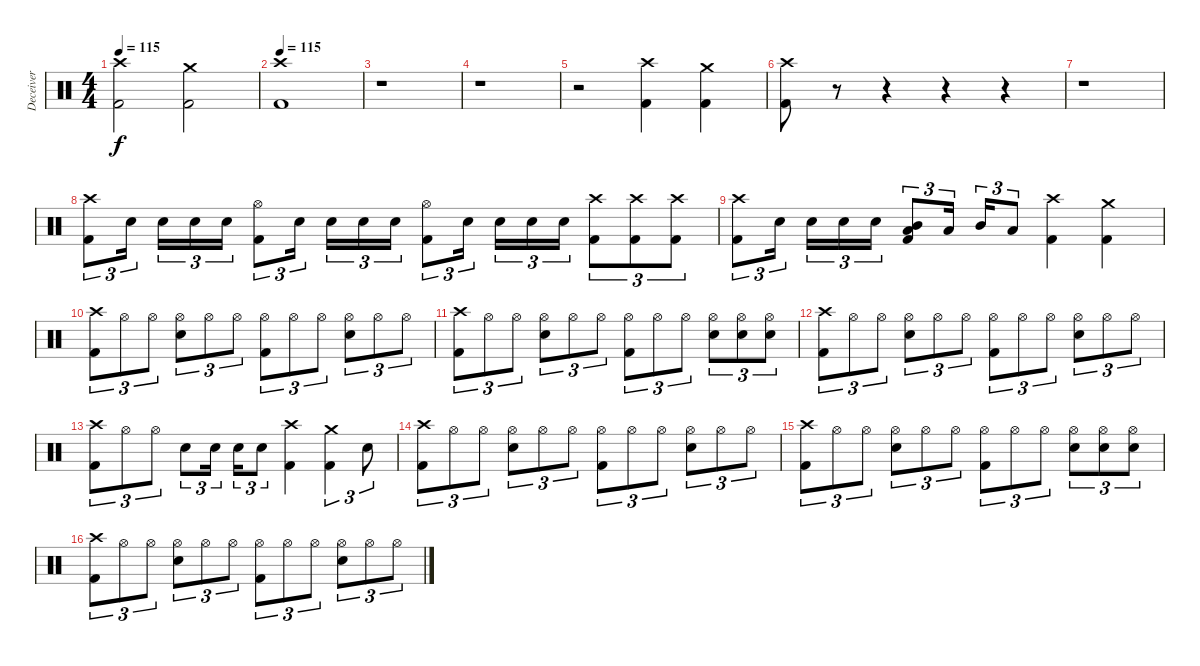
\track ("Deceiver" "Deceiver") {instrument percussion}
\staff {score}
\articulation defaults
\ts (4 4)
\tempo 115
\clef neutral
\ks c
("Crash high (hit)" "Kick (hit) 2").2{dy f} ("Crash medium (hit)" "Kick (hit) 2").2 |
\tempo 115
("Crash high (hit)" "Kick (hit) 2").1 |
r.1 |
r.1 |
r.2 ("Crash high (hit)" "Kick (hit) 2").4 ("Crash medium (hit)" "Kick (hit) 2").4 |
("Crash high (hit)" "Kick (hit) 2").8 r.8 r.4 r.4 r.4 |
r.1 |
("Crash high (hit)" "Kick (hit) 2").8{tu (3 2)} "Electric Snare (hit)".16{tu (3 2) beam splitsecondary} "Electric Snare (hit)".16{tu (3 2)} "Electric Snare (hit)".16{tu (3 2)} "Electric Snare (hit)".16{tu (3 2)} ("Hi-Hat (open)" "Kick (hit) 2").8{tu (3 2)} "Electric Snare (hit)".16{tu (3 2) beam splitsecondary} "Electric Snare (hit)".16{tu (3 2)} "Electric Snare (hit)".16{tu (3 2)} "Electric Snare (hit)".16{tu (3 2)} ("Hi-Hat (open)" "Kick (hit) 2").8{tu (3 2)} "Electric Snare (hit)".16{tu (3 2) beam splitsecondary} "Electric Snare (hit)".16{tu (3 2)} "Electric Snare (hit)".16{tu (3 2)} "Electric Snare (hit)".16{tu (3 2)} ("Crash high (hit)" "Kick (hit) 2").8{tu (3 2)} ("Crash high (hit)" "Kick (hit) 2").8{tu (3 2)} ("Crash high (hit)" "Kick (hit) 2").8{tu (3 2)} |
("Crash high (hit)" "Kick (hit) 2").8{tu (3 2)} "Electric Snare (hit)".16{tu (3 2) beam splitsecondary} "Electric Snare (hit)".16{tu (3 2)} "Electric Snare (hit)".16{tu (3 2)} "Electric Snare (hit)".16{tu (3 2)} ("Mid Tom (hit)" "Low Tom (hit)" "Kick (hit) 2").8{tu (3 2)} "Low Tom (hit)".16{tu (3 2) beam splitsecondary} "Mid Tom (hit)".16{tu (3 2)} "Low Tom (hit)".8{tu (3 2)} ("Crash high (hit)" "Kick (hit) 2").4 ("Crash medium (hit)" "Kick (hit) 2").4 |
("Crash high (hit)" "Kick (hit) 2").8{tu (3 2)} "Hi-Hat (open)".8{tu (3 2)} "Hi-Hat (open)".8{tu (3 2)} ("Hi-Hat (open)" "Electric Snare (hit)").8{tu (3 2)} "Hi-Hat (open)".8{tu (3 2)} "Hi-Hat (open)".8{tu (3 2)} ("Hi-Hat (open)" "Kick (hit) 2").8{tu (3 2)} "Hi-Hat (open)".8{tu (3 2)} "Hi-Hat (open)".8{tu (3 2)} ("Hi-Hat (open)" "Electric Snare (hit)").8{tu (3 2)} "Hi-Hat (open)".8{tu (3 2)} "Hi-Hat (open)".8{tu (3 2)} |
("Crash high (hit)" "Kick (hit) 2").8{tu (3 2)} "Hi-Hat (open)".8{tu (3 2)} "Hi-Hat (open)".8{tu (3 2)} ("Hi-Hat (open)" "Electric Snare (hit)").8{tu (3 2)} "Hi-Hat (open)".8{tu (3 2)} "Hi-Hat (open)".8{tu (3 2)} ("Hi-Hat (open)" "Kick (hit) 2").8{tu (3 2)} "Hi-Hat (open)".8{tu (3 2)} "Hi-Hat (open)".8{tu (3 2)} ("Hi-Hat (open)" "Electric Snare (hit)").8{tu (3 2)} ("Hi-Hat (open)" "Electric Snare (hit)").8{tu (3 2)} ("Hi-Hat (open)" "Electric Snare (hit)").8{tu (3 2)} |
("Crash high (hit)" "Kick (hit) 2").8{tu (3 2)} "Hi-Hat (open)".8{tu (3 2)} "Hi-Hat (open)".8{tu (3 2)} ("Hi-Hat (open)" "Electric Snare (hit)").8{tu (3 2)} "Hi-Hat (open)".8{tu (3 2)} "Hi-Hat (open)".8{tu (3 2)} ("Hi-Hat (open)" "Kick (hit) 2").8{tu (3 2)} "Hi-Hat (open)".8{tu (3 2)} "Hi-Hat (open)".8{tu (3 2)} ("Hi-Hat (open)" "Electric Snare (hit)").8{tu (3 2)} "Hi-Hat (open)".8{tu (3 2)} "Hi-Hat (open)".8{tu (3 2)} |
("Crash high (hit)" "Kick (hit) 2").8{tu (3 2)} "Hi-Hat (open)".8{tu (3 2)} "Hi-Hat (open)".8{tu (3 2)} "Electric Snare (hit)".8{tu (3 2)} "Electric Snare (hit)".16{tu (3 2) beam splitsecondary} "Electric Snare (hit)".16{tu (3 2)} "Electric Snare (hit)".8{tu (3 2)} ("Crash high (hit)" "Kick (hit) 2").4 ("Crash medium (hit)" "Kick (hit) 2").4{tu (3 2)} "Electric Snare (hit)".8{tu (3 2)} |
("Crash high (hit)" "Kick (hit) 2").8{tu (3 2)} "Hi-Hat (open)".8{tu (3 2)} "Hi-Hat (open)".8{tu (3 2)} ("Hi-Hat (open)" "Electric Snare (hit)").8{tu (3 2)} "Hi-Hat (open)".8{tu (3 2)} "Hi-Hat (open)".8{tu (3 2)} ("Hi-Hat (open)" "Kick (hit) 2").8{tu (3 2)} "Hi-Hat (open)".8{tu (3 2)} "Hi-Hat (open)".8{tu (3 2)} ("Hi-Hat (open)" "Electric Snare (hit)").8{tu (3 2)} "Hi-Hat (open)".8{tu (3 2)} "Hi-Hat (open)".8{tu (3 2)} |
("Crash high (hit)" "Kick (hit) 2").8{tu (3 2)} "Hi-Hat (open)".8{tu (3 2)} "Hi-Hat (open)".8{tu (3 2)} ("Hi-Hat (open)" "Electric Snare (hit)").8{tu (3 2)} "Hi-Hat (open)".8{tu (3 2)} "Hi-Hat (open)".8{tu (3 2)} ("Hi-Hat (open)" "Kick (hit) 2").8{tu (3 2)} "Hi-Hat (open)".8{tu (3 2)} "Hi-Hat (open)".8{tu (3 2)} ("Hi-Hat (open)" "Electric Snare (hit)").8{tu (3 2)} ("Hi-Hat (open)" "Electric Snare (hit)").8{tu (3 2)} ("Hi-Hat (open)" "Electric Snare (hit)").8{tu (3 2)} |
("Crash high (hit)" "Kick (hit) 2").8{tu (3 2)} "Hi-Hat (open)".8{tu (3 2)} "Hi-Hat (open)".8{tu (3 2)} ("Hi-Hat (open)" "Electric Snare (hit)").8{tu (3 2)} "Hi-Hat (open)".8{tu (3 2)} "Hi-Hat (open)".8{tu (3 2)} ("Hi-Hat (open)" "Kick (hit) 2").8{tu (3 2)} "Hi-Hat (open)".8{tu (3 2)} "Hi-Hat (open)".8{tu (3 2)} ("Hi-Hat (open)" "Electric Snare (hit)").8{tu (3 2)} "Hi-Hat (open)".8{tu (3 2)} "Hi-Hat (open)".8{tu (3 2)}
